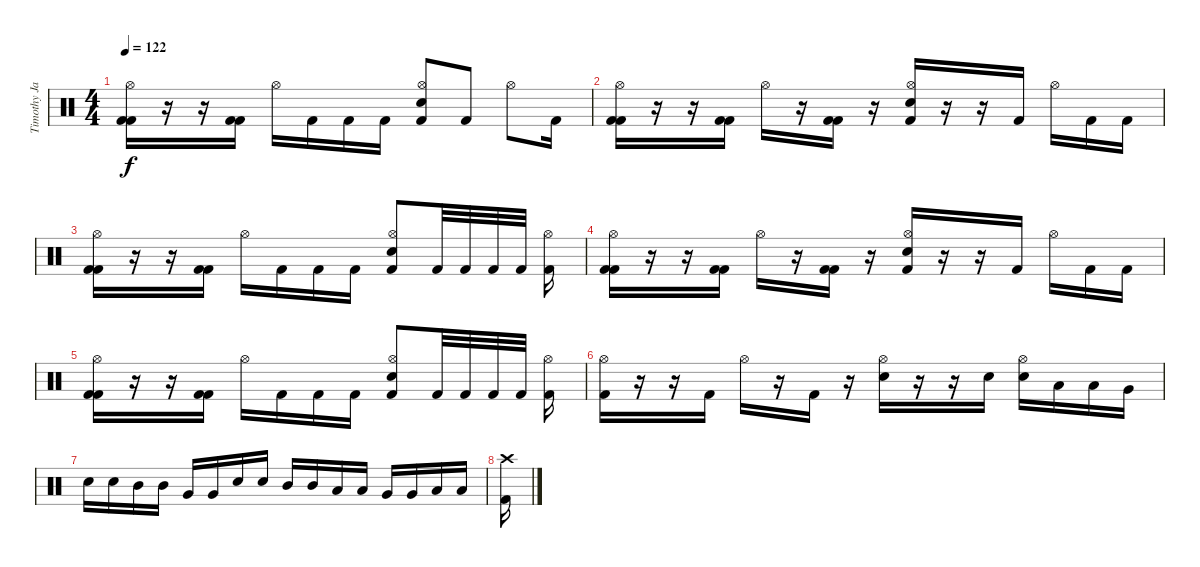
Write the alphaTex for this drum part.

\track ("Timothy Java" "Timothy Ja") {instrument percussion}
\staff {score}
\articulation defaults
\ts (4 4)
\tempo 122
\clef neutral
\ks c
("Kick (hit) 2" "Kick (hit) 2" "Hi-Hat (open)").16{dy f} r.16 r.16 ("Kick (hit) 2" "Kick (hit) 2").16 "Hi-Hat (open)".16 "Kick (hit) 2".16 "Kick (hit) 2".16 "Kick (hit) 2".16 ("Kick (hit) 2" "Electric Snare (hit)" "Hi-Hat (open)").8 "Kick (hit) 2".8 "Hi-Hat (open)".8 "Kick (hit) 2".16 |
("Kick (hit) 2" "Kick (hit) 2" "Hi-Hat (open)").16 r.16 r.16 ("Kick (hit) 2" "Kick (hit) 2").16 "Hi-Hat (open)".16 r.16 ("Kick (hit) 2" "Kick (hit) 2").16 r.16 ("Kick (hit) 2" "Electric Snare (hit)" "Hi-Hat (open)").16 r.16 r.16 "Kick (hit) 2".16 "Hi-Hat (open)".16 "Kick (hit) 2".16 "Kick (hit) 2".16 |
("Kick (hit) 2" "Kick (hit) 2" "Hi-Hat (open)").16 r.16 r.16 ("Kick (hit) 2" "Kick (hit) 2").16 "Hi-Hat (open)".16 "Kick (hit) 2".16 "Kick (hit) 2".16 "Kick (hit) 2".16 ("Kick (hit) 2" "Electric Snare (hit)" "Hi-Hat (open)").8 "Kick (hit) 2".32 "Kick (hit) 2".32 "Kick (hit) 2".32 "Kick (hit) 2".32 ("Kick (hit) 2" "Hi-Hat (open)").16 |
("Kick (hit) 2" "Kick (hit) 2" "Hi-Hat (open)").16 r.16 r.16 ("Kick (hit) 2" "Kick (hit) 2").16 "Hi-Hat (open)".16 r.16 ("Kick (hit) 2" "Kick (hit) 2").16 r.16 ("Kick (hit) 2" "Electric Snare (hit)" "Hi-Hat (open)").16 r.16 r.16 "Kick (hit) 2".16 "Hi-Hat (open)".16 "Kick (hit) 2".16 "Kick (hit) 2".16 |
("Kick (hit) 2" "Kick (hit) 2" "Hi-Hat (open)").16 r.16 r.16 ("Kick (hit) 2" "Kick (hit) 2").16 "Hi-Hat (open)".16 "Kick (hit) 2".16 "Kick (hit) 2".16 "Kick (hit) 2".16 ("Kick (hit) 2" "Electric Snare (hit)" "Hi-Hat (open)").8 "Kick (hit) 2".32 "Kick (hit) 2".32 "Kick (hit) 2".32 "Kick (hit) 2".32 ("Kick (hit) 2" "Hi-Hat (open)").16 |
("Hi-Hat (open)" "Kick (hit) 2").16 r.16 r.16 "Kick (hit) 2".16 "Hi-Hat (open)".16 r.16 "Kick (hit) 2".16 r.16 ("Hi-Hat (open)" "Electric Snare (hit)").16 r.16 r.16 "Electric Snare (hit)".16 ("Hi-Hat (open)" "Electric Snare (hit)").16 "Low Tom (hit)".16 "Low Tom (hit)".16 "Very Low Tom (hit)".16 |
"Electric Snare (hit)".16 "Electric Snare (hit)".16 "Mid Tom (hit)".16 "Mid Tom (hit)".16 "Very Low Tom (hit)".16 "Very Low Tom (hit)".16 "Electric Snare (hit)".16 "Electric Snare (hit)".16 "Mid Tom (hit)".16 "Mid Tom (hit)".16 "Low Tom (hit)".16 "Low Tom (hit)".16 "Very Low Tom (hit)".16 "Very Low Tom (hit)".16 "Low Floor Tom (hit)".16 "Low Floor Tom (hit)".16 |
("Crash high (hit)" "Kick (hit) 2").16
